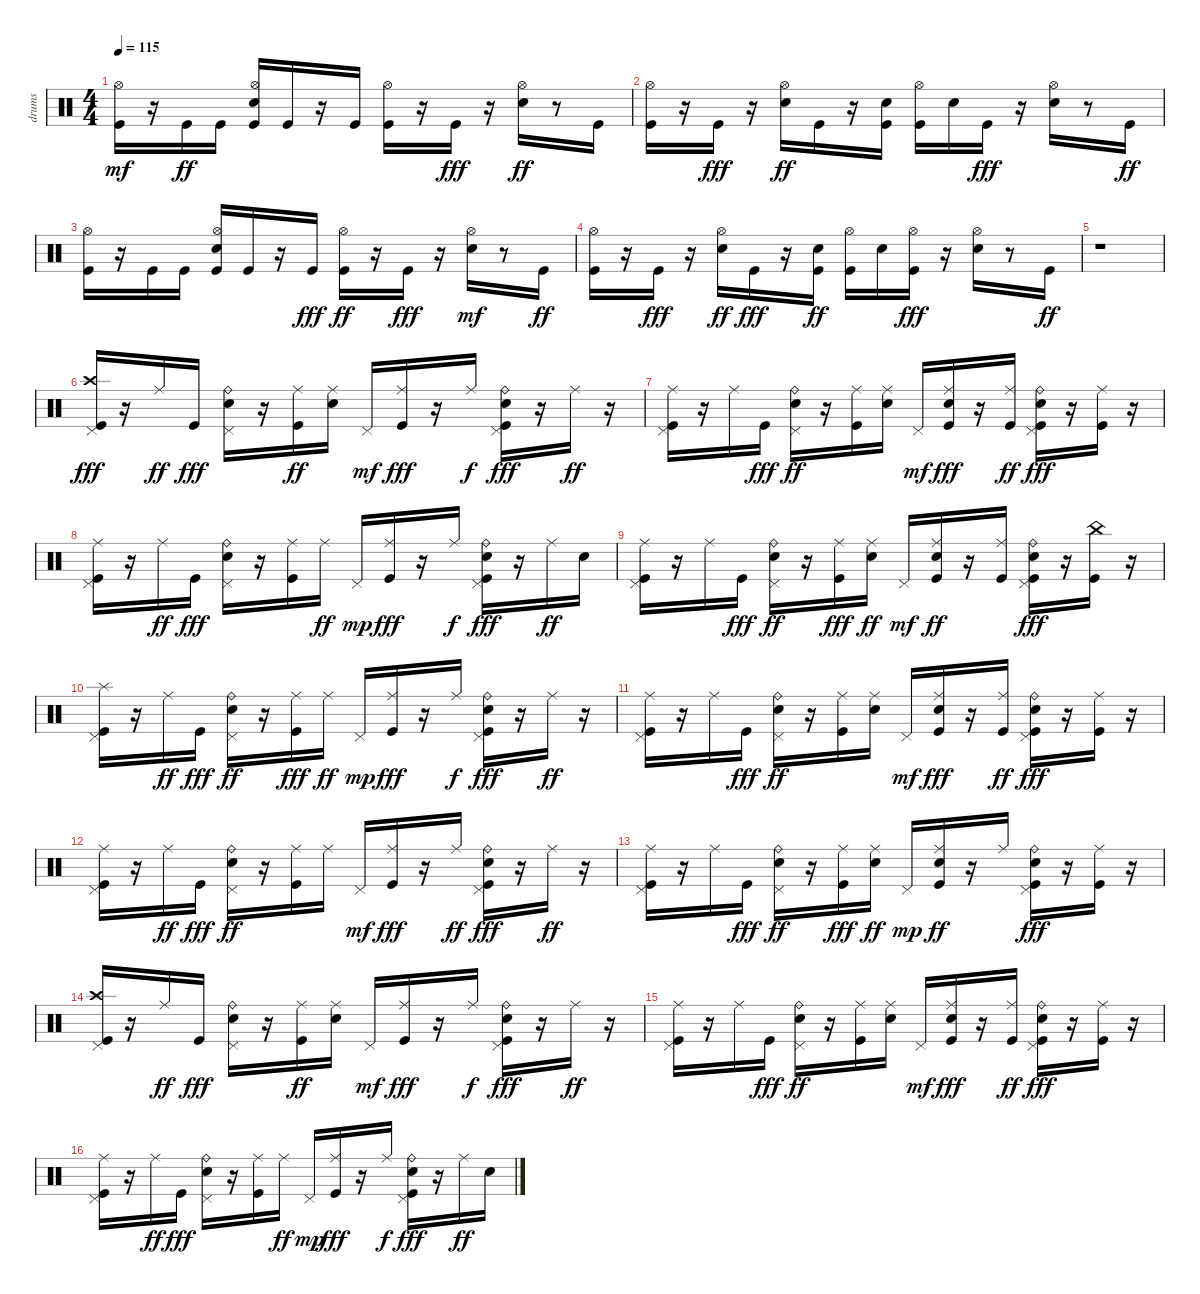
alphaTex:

\track ("drums" "drums") {instrument percussion}
\staff {score}
\articulation defaults
\ts (4 4)
\tempo 115
\clef neutral
\ks c
("Kick (hit)" "Hi-Hat (open)").16{dy mf} r.16 "Kick (hit)".16{dy ff} "Kick (hit)".16 ("Kick (hit)" "Snare (hit) 2" "Hi-Hat (open)").16 "Kick (hit)".16 r.16 "Kick (hit)".16 ("Kick (hit)" "Hi-Hat (open)").16 r.16 "Kick (hit)".16{dy fff} r.16 ("Snare (hit) 2" "Hi-Hat (open)").16{dy ff} r.8 "Kick (hit)".16 |
("Kick (hit)" "Hi-Hat (open)").16 r.16 "Kick (hit)".16{dy fff} r.16 ("Snare (hit) 2" "Hi-Hat (open)").16{dy ff} "Kick (hit)".16 r.16 ("Kick (hit)" "Snare (hit) 2").16 ("Kick (hit)" "Hi-Hat (open)").16 "Snare (hit) 2".16 "Kick (hit)".16{dy fff} r.16 ("Snare (hit) 2" "Hi-Hat (open)").16 r.8 "Kick (hit)".16{dy ff} |
("Kick (hit)" "Hi-Hat (open)").16 r.16 "Kick (hit)".16 "Kick (hit)".16 ("Kick (hit)" "Snare (hit) 2" "Hi-Hat (open)").16 "Kick (hit)".16 r.16 "Kick (hit)".16{dy fff} ("Kick (hit)" "Hi-Hat (open)").16{dy ff} r.16 "Kick (hit)".16{dy fff} r.16 ("Snare (hit) 2" "Hi-Hat (open)").16{dy mf} r.8 "Kick (hit)".16{dy ff} |
("Kick (hit)" "Hi-Hat (open)").16 r.16 "Kick (hit)".16{dy fff} r.16 ("Snare (hit) 2" "Hi-Hat (open)").16{dy ff} "Kick (hit)".16{dy fff} r.16 ("Kick (hit)" "Snare (hit) 2").16{dy ff} ("Kick (hit)" "Hi-Hat (open)").16 "Snare (hit) 2".16 ("Kick (hit)" "Hi-Hat (open)").16{dy fff} r.16 ("Hi-Hat (open)" "Snare (hit) 2").16 r.8 "Kick (hit)".16{dy ff} |
r.1 |
("Crash high (hit)" "Pedal Hi-Hat (hit)" "Kick (hit)").16{dy fff} r.16 "Ride (middle)".16{dy ff} "Kick (hit)".16{dy fff} ("Pedal Hi-Hat (hit)" "Snare (hit) 2" "Ride (bell)").16 r.16 ("Kick (hit)" "Ride (middle)").16{dy ff} ("Snare (hit) 2" "Ride (middle)").16 "Pedal Hi-Hat (hit)".16{dy mf} ("Ride (middle)" "Kick (hit)").16{dy fff} r.16 "Ride (middle)".16{dy f} ("Pedal Hi-Hat (hit)" "Snare (hit) 2" "Ride (bell)" "Kick (hit)").16{dy fff} r.16 "Ride (middle)".16{dy ff} r.16 |
("Pedal Hi-Hat (hit)" "Kick (hit)" "Ride (middle)").16 r.16 "Ride (middle)".16 "Kick (hit)".16{dy fff} ("Pedal Hi-Hat (hit)" "Snare (hit) 2" "Ride (bell)").16{dy ff} r.16 ("Kick (hit)" "Ride (middle)").16 ("Ride (middle)" "Snare (hit) 2").16 "Pedal Hi-Hat (hit)".16{dy mf} ("Ride (middle)" "Snare (hit) 2" "Kick (hit)").16{dy fff} r.16 ("Ride (middle)" "Kick (hit)").16{dy ff} ("Pedal Hi-Hat (hit)" "Ride (bell)" "Snare (hit) 2" "Kick (hit)").16{dy fff} r.16 ("Ride (middle)" "Kick (hit)").16 r.16 |
("Pedal Hi-Hat (hit)" "Ride (middle)" "Kick (hit)").16 r.16 "Ride (middle)".16{dy ff} "Kick (hit)".16{dy fff} ("Pedal Hi-Hat (hit)" "Snare (hit) 2" "Ride (bell)").16 r.16 ("Ride (middle)" "Kick (hit)").16 "Ride (middle)".16{dy ff} "Pedal Hi-Hat (hit)".16{dy mp} ("Ride (middle)" "Kick (hit)").16{dy fff} r.16 "Ride (middle)".16{dy f} ("Pedal Hi-Hat (hit)" "Ride (bell)" "Snare (hit) 2" "Kick (hit)").16{dy fff} r.16 "Ride (middle)".16{dy ff} "Snare (hit) 2".16 |
("Pedal Hi-Hat (hit)" "Kick (hit)" "Ride (middle)").16 r.16 "Ride (middle)".16 "Kick (hit)".16{dy fff} ("Pedal Hi-Hat (hit)" "Ride (bell)" "Snare (hit) 2").16{dy ff} r.16 ("Kick (hit)" "Ride (middle)").16{dy fff} ("Ride (middle)" "Snare (hit) 2").16{dy ff} "Pedal Hi-Hat (hit)".16{dy mf} ("Ride (middle)" "Kick (hit)" "Snare (hit) 2").16{dy ff} r.16 ("Kick (hit)" "Ride (middle)").16 ("Pedal Hi-Hat (hit)" "Ride (bell)" "Snare (hit) 2" "Kick (hit)").16{dy fff} r.16 ("China (hit)" "Kick (hit)").16 r.16 |
("Splash (hit)" "Pedal Hi-Hat (hit)" "Kick (hit)").16 r.16 "Ride (middle)".16{dy ff} "Kick (hit)".16{dy fff} ("Pedal Hi-Hat (hit)" "Snare (hit) 2" "Ride (bell)").16{dy ff} r.16 ("Ride (middle)" "Kick (hit)").16{dy fff} "Ride (middle)".16{dy ff} "Pedal Hi-Hat (hit)".16{dy mp} ("Ride (middle)" "Kick (hit)").16{dy fff} r.16 "Ride (middle)".16{dy f} ("Pedal Hi-Hat (hit)" "Ride (bell)" "Snare (hit) 2" "Kick (hit)").16{dy fff} r.16 "Ride (middle)".16{dy ff} r.16 |
("Pedal Hi-Hat (hit)" "Kick (hit)" "Ride (middle)").16 r.16 "Ride (middle)".16 "Kick (hit)".16{dy fff} ("Pedal Hi-Hat (hit)" "Snare (hit) 2" "Ride (bell)").16{dy ff} r.16 ("Kick (hit)" "Ride (middle)").16 ("Ride (middle)" "Snare (hit) 2").16 "Pedal Hi-Hat (hit)".16{dy mf} ("Ride (middle)" "Snare (hit) 2" "Kick (hit)").16{dy fff} r.16 ("Kick (hit)" "Ride (middle)").16{dy ff} ("Pedal Hi-Hat (hit)" "Snare (hit) 2" "Ride (bell)" "Kick (hit)").16{dy fff} r.16 ("Ride (middle)" "Kick (hit)").16 r.16 |
("Pedal Hi-Hat (hit)" "Ride (middle)" "Kick (hit)").16 r.16 "Ride (middle)".16{dy ff} "Kick (hit)".16{dy fff} ("Pedal Hi-Hat (hit)" "Ride (bell)" "Snare (hit) 2").16{dy ff} r.16 ("Kick (hit)" "Ride (middle)").16 "Ride (middle)".16 "Pedal Hi-Hat (hit)".16{dy mf} ("Ride (middle)" "Kick (hit)").16{dy fff} r.16 "Ride (middle)".16{dy ff} ("Pedal Hi-Hat (hit)" "Kick (hit)" "Ride (bell)" "Snare (hit) 2").16{dy fff} r.16 "Ride (middle)".16{dy ff} r.16 |
("Pedal Hi-Hat (hit)" "Kick (hit)" "Ride (middle)").16 r.16 "Ride (middle)".16 "Kick (hit)".16{dy fff} ("Pedal Hi-Hat (hit)" "Snare (hit) 2" "Ride (bell)").16{dy ff} r.16 ("Kick (hit)" "Ride (middle)").16{dy fff} ("Ride (middle)" "Snare (hit) 2").16{dy ff} "Pedal Hi-Hat (hit)".16{dy mp} ("Kick (hit)" "Ride (middle)" "Snare (hit) 2").16{dy ff} r.16 "Ride (middle)".16 ("Pedal Hi-Hat (hit)" "Kick (hit)" "Snare (hit) 2" "Ride (bell)").16{dy fff} r.16 ("Ride (middle)" "Kick (hit)").16 r.16 |
("Crash high (hit)" "Pedal Hi-Hat (hit)" "Kick (hit)").16 r.16 "Ride (middle)".16{dy ff} "Kick (hit)".16{dy fff} ("Pedal Hi-Hat (hit)" "Snare (hit) 2" "Ride (bell)").16 r.16 ("Kick (hit)" "Ride (middle)").16{dy ff} ("Snare (hit) 2" "Ride (middle)").16 "Pedal Hi-Hat (hit)".16{dy mf} ("Ride (middle)" "Kick (hit)").16{dy fff} r.16 "Ride (middle)".16{dy f} ("Pedal Hi-Hat (hit)" "Snare (hit) 2" "Ride (bell)" "Kick (hit)").16{dy fff} r.16 "Ride (middle)".16{dy ff} r.16 |
("Pedal Hi-Hat (hit)" "Kick (hit)" "Ride (middle)").16 r.16 "Ride (middle)".16 "Kick (hit)".16{dy fff} ("Pedal Hi-Hat (hit)" "Snare (hit) 2" "Ride (bell)").16{dy ff} r.16 ("Kick (hit)" "Ride (middle)").16 ("Ride (middle)" "Snare (hit) 2").16 "Pedal Hi-Hat (hit)".16{dy mf} ("Ride (middle)" "Snare (hit) 2" "Kick (hit)").16{dy fff} r.16 ("Ride (middle)" "Kick (hit)").16{dy ff} ("Pedal Hi-Hat (hit)" "Ride (bell)" "Snare (hit) 2" "Kick (hit)").16{dy fff} r.16 ("Ride (middle)" "Kick (hit)").16 r.16 |
("Pedal Hi-Hat (hit)" "Ride (middle)" "Kick (hit)").16 r.16 "Ride (middle)".16{dy ff} "Kick (hit)".16{dy fff} ("Pedal Hi-Hat (hit)" "Snare (hit) 2" "Ride (bell)").16 r.16 ("Ride (middle)" "Kick (hit)").16 "Ride (middle)".16{dy ff} "Pedal Hi-Hat (hit)".16{dy mp} ("Ride (middle)" "Kick (hit)").16{dy fff} r.16 "Ride (middle)".16{dy f} ("Pedal Hi-Hat (hit)" "Ride (bell)" "Snare (hit) 2" "Kick (hit)").16{dy fff} r.16 "Ride (middle)".16{dy ff} "Snare (hit) 2".16
